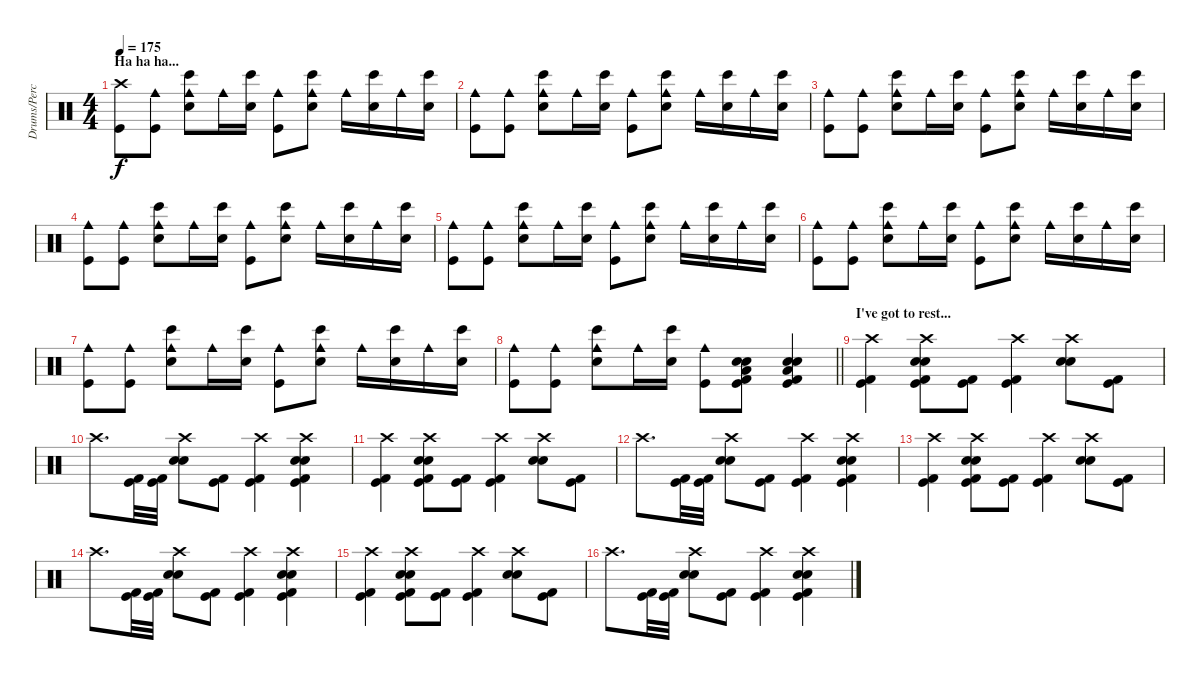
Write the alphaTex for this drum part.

\track ("Drums/Percussion" "Drums/Perc") {instrument percussion}
\staff {score}
\articulation defaults
\ts (4 4)
\section ("" "Ha ha ha...")
\tempo 175
\clef neutral
\ks c
("Crash high (hit)" "Kick (hit)").8{dy f} ("Cowbell medium (hit)" "Kick (hit)").8 ("Cowbell medium (hit)" "Bongo High (hit)" "Electric Snare (hit)").8 "Cowbell medium (hit)".16 ("Bongo High (hit)" "Electric Snare (hit)").16 ("Cowbell medium (hit)" "Kick (hit)").8 ("Cowbell medium (hit)" "Bongo High (hit)" "Electric Snare (hit)").8 "Cowbell medium (hit)".16 ("Bongo High (hit)" "Electric Snare (hit)").16 "Cowbell medium (hit)".16 ("Bongo High (hit)" "Electric Snare (hit)").16 |
("Cowbell medium (hit)" "Kick (hit)").8 ("Cowbell medium (hit)" "Kick (hit)").8 ("Cowbell medium (hit)" "Bongo High (hit)" "Electric Snare (hit)").8 "Cowbell medium (hit)".16 ("Bongo High (hit)" "Electric Snare (hit)").16 ("Cowbell medium (hit)" "Kick (hit)").8 ("Cowbell medium (hit)" "Bongo High (hit)" "Electric Snare (hit)").8 "Cowbell medium (hit)".16 ("Bongo High (hit)" "Electric Snare (hit)").16 "Cowbell medium (hit)".16 ("Bongo High (hit)" "Electric Snare (hit)").16 |
("Cowbell medium (hit)" "Kick (hit)").8 ("Cowbell medium (hit)" "Kick (hit)").8 ("Cowbell medium (hit)" "Bongo High (hit)" "Electric Snare (hit)").8 "Cowbell medium (hit)".16 ("Bongo High (hit)" "Electric Snare (hit)").16 ("Cowbell medium (hit)" "Kick (hit)").8 ("Cowbell medium (hit)" "Bongo High (hit)" "Electric Snare (hit)").8 "Cowbell medium (hit)".16 ("Bongo High (hit)" "Electric Snare (hit)").16 "Cowbell medium (hit)".16 ("Bongo High (hit)" "Electric Snare (hit)").16 |
("Cowbell medium (hit)" "Kick (hit)").8 ("Cowbell medium (hit)" "Kick (hit)").8 ("Cowbell medium (hit)" "Bongo High (hit)" "Electric Snare (hit)").8 "Cowbell medium (hit)".16 ("Bongo High (hit)" "Electric Snare (hit)").16 ("Cowbell medium (hit)" "Kick (hit)").8 ("Cowbell medium (hit)" "Bongo High (hit)" "Electric Snare (hit)").8 "Cowbell medium (hit)".16 ("Bongo High (hit)" "Electric Snare (hit)").16 "Cowbell medium (hit)".16 ("Bongo High (hit)" "Electric Snare (hit)").16 |
("Cowbell medium (hit)" "Kick (hit)").8 ("Cowbell medium (hit)" "Kick (hit)").8 ("Cowbell medium (hit)" "Bongo High (hit)" "Electric Snare (hit)").8 "Cowbell medium (hit)".16 ("Bongo High (hit)" "Electric Snare (hit)").16 ("Cowbell medium (hit)" "Kick (hit)").8 ("Cowbell medium (hit)" "Bongo High (hit)" "Electric Snare (hit)").8 "Cowbell medium (hit)".16 ("Bongo High (hit)" "Electric Snare (hit)").16 "Cowbell medium (hit)".16 ("Bongo High (hit)" "Electric Snare (hit)").16 |
("Cowbell medium (hit)" "Kick (hit)").8 ("Cowbell medium (hit)" "Kick (hit)").8 ("Cowbell medium (hit)" "Bongo High (hit)" "Electric Snare (hit)").8 "Cowbell medium (hit)".16 ("Bongo High (hit)" "Electric Snare (hit)").16 ("Cowbell medium (hit)" "Kick (hit)").8 ("Cowbell medium (hit)" "Bongo High (hit)" "Electric Snare (hit)").8 "Cowbell medium (hit)".16 ("Bongo High (hit)" "Electric Snare (hit)").16 "Cowbell medium (hit)".16 ("Bongo High (hit)" "Electric Snare (hit)").16 |
("Cowbell medium (hit)" "Kick (hit)").8 ("Cowbell medium (hit)" "Kick (hit)").8 ("Cowbell medium (hit)" "Bongo High (hit)" "Electric Snare (hit)").8 "Cowbell medium (hit)".16 ("Bongo High (hit)" "Electric Snare (hit)").16 ("Cowbell medium (hit)" "Kick (hit)").8 ("Cowbell medium (hit)" "Bongo High (hit)" "Electric Snare (hit)").8 "Cowbell medium (hit)".16 ("Bongo High (hit)" "Electric Snare (hit)").16 "Cowbell medium (hit)".16 ("Bongo High (hit)" "Electric Snare (hit)").16 |
\barLineRight lightlight
("Cowbell medium (hit)" "Kick (hit)").8 ("Cowbell medium (hit)" "Kick (hit)").8 ("Cowbell medium (hit)" "Bongo High (hit)" "Electric Snare (hit)").8 "Cowbell medium (hit)".16 ("Bongo High (hit)" "Electric Snare (hit)").16 ("Cowbell medium (hit)" "Kick (hit)").8 ("Low Tom (hit)" "Electric Snare (hit)" "Snare (hit) 2" "Kick (hit)" "Kick (hit) 2").8 ("Low Tom (hit)" "Electric Snare (hit)" "Snare (hit) 2" "Kick (hit)" "Kick (hit) 2").4 |
\section ("" "I've got to rest...")
("Crash high (hit)" "Kick (hit)" "Kick (hit) 2").4 ("Crash high (hit)" "Electric Snare (hit)" "Snare (hit) 2" "Kick (hit)" "Kick (hit) 2").8 ("Kick (hit)" "Kick (hit) 2").8 ("Crash high (hit)" "Kick (hit)" "Kick (hit) 2").4 ("Crash high (hit)" "Electric Snare (hit)" "Snare (hit) 2").8 ("Kick (hit)" "Kick (hit) 2").8 |
"Crash high (hit)".8{d} ("Kick (hit)" "Kick (hit) 2").32 ("Kick (hit)" "Kick (hit) 2").32 ("Crash high (hit)" "Electric Snare (hit)" "Snare (hit) 2").8 ("Kick (hit)" "Kick (hit) 2").8 ("Crash high (hit)" "Kick (hit)" "Kick (hit) 2").4 ("Crash high (hit)" "Electric Snare (hit)" "Snare (hit) 2" "Kick (hit)" "Kick (hit) 2").4 |
("Crash high (hit)" "Kick (hit)" "Kick (hit) 2").4 ("Crash high (hit)" "Electric Snare (hit)" "Snare (hit) 2" "Kick (hit)" "Kick (hit) 2").8 ("Kick (hit)" "Kick (hit) 2").8 ("Crash high (hit)" "Kick (hit)" "Kick (hit) 2").4 ("Crash high (hit)" "Electric Snare (hit)" "Snare (hit) 2").8 ("Kick (hit)" "Kick (hit) 2").8 |
"Crash high (hit)".8{d} ("Kick (hit)" "Kick (hit) 2").32 ("Kick (hit)" "Kick (hit) 2").32 ("Crash high (hit)" "Electric Snare (hit)" "Snare (hit) 2").8 ("Kick (hit)" "Kick (hit) 2").8 ("Crash high (hit)" "Kick (hit)" "Kick (hit) 2").4 ("Crash high (hit)" "Electric Snare (hit)" "Snare (hit) 2" "Kick (hit)" "Kick (hit) 2").4 |
("Crash high (hit)" "Kick (hit)" "Kick (hit) 2").4 ("Crash high (hit)" "Electric Snare (hit)" "Snare (hit) 2" "Kick (hit)" "Kick (hit) 2").8 ("Kick (hit)" "Kick (hit) 2").8 ("Crash high (hit)" "Kick (hit)" "Kick (hit) 2").4 ("Crash high (hit)" "Electric Snare (hit)" "Snare (hit) 2").8 ("Kick (hit)" "Kick (hit) 2").8 |
"Crash high (hit)".8{d} ("Kick (hit)" "Kick (hit) 2").32 ("Kick (hit)" "Kick (hit) 2").32 ("Crash high (hit)" "Electric Snare (hit)" "Snare (hit) 2").8 ("Kick (hit)" "Kick (hit) 2").8 ("Crash high (hit)" "Kick (hit)" "Kick (hit) 2").4 ("Crash high (hit)" "Electric Snare (hit)" "Snare (hit) 2" "Kick (hit)" "Kick (hit) 2").4 |
("Crash high (hit)" "Kick (hit)" "Kick (hit) 2").4 ("Crash high (hit)" "Electric Snare (hit)" "Snare (hit) 2" "Kick (hit)" "Kick (hit) 2").8 ("Kick (hit)" "Kick (hit) 2").8 ("Crash high (hit)" "Kick (hit)" "Kick (hit) 2").4 ("Crash high (hit)" "Electric Snare (hit)" "Snare (hit) 2").8 ("Kick (hit)" "Kick (hit) 2").8 |
"Crash high (hit)".8{d} ("Kick (hit)" "Kick (hit) 2").32 ("Kick (hit)" "Kick (hit) 2").32 ("Crash high (hit)" "Electric Snare (hit)" "Snare (hit) 2").8 ("Kick (hit)" "Kick (hit) 2").8 ("Crash high (hit)" "Kick (hit)" "Kick (hit) 2").4 ("Crash high (hit)" "Electric Snare (hit)" "Snare (hit) 2" "Kick (hit)" "Kick (hit) 2").4
